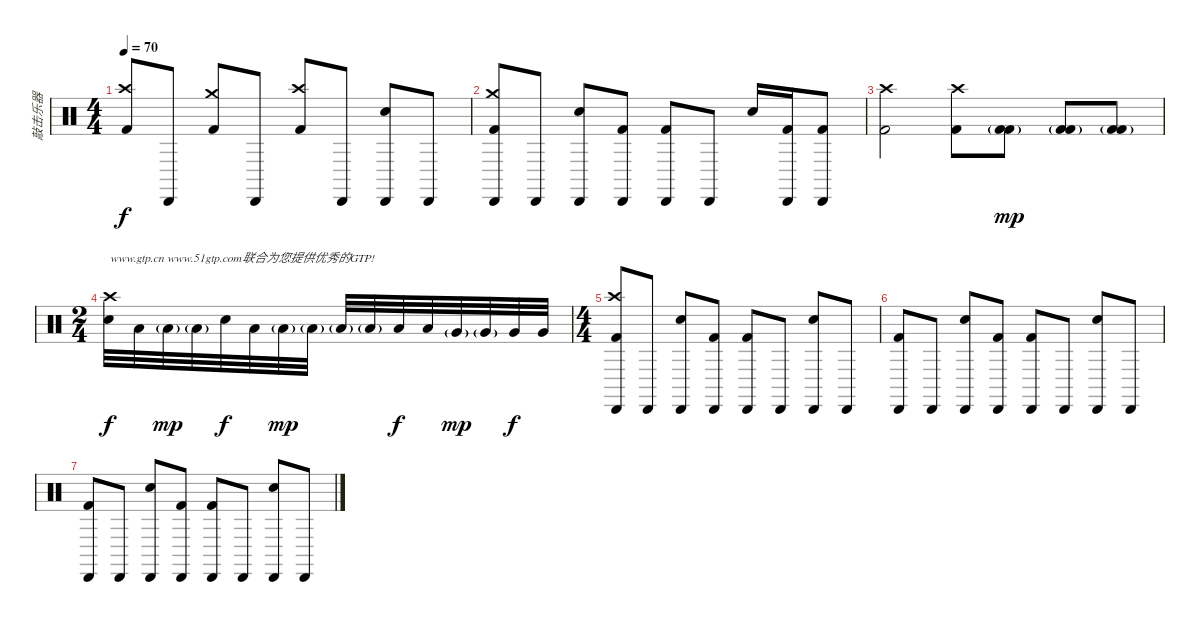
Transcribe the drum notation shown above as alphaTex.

\track ("敲击乐器" "敲击乐器") {instrument percussion}
\staff {score}
\articulation defaults
\ts (4 4)
\tempo 70
\clef neutral
\ks c
("Crash high (hit)" "Kick (hit) 2").8{dy f} "Cabasa (hit)".8 ("Crash medium (hit)" "Kick (hit) 2").8 "Cabasa (hit)".8 ("Crash high (hit)" "Kick (hit) 2").8 "Cabasa (hit)".8 ("Cabasa (hit)" "Electric Snare (hit)").8 "Cabasa (hit)".8 |
("Crash medium (hit)" "Cabasa (hit)" "Kick (hit) 2").8 "Cabasa (hit)".8 ("Cabasa (hit)" "Electric Snare (hit)").8 ("Cabasa (hit)" "Kick (hit) 2").8 ("Cabasa (hit)" "Kick (hit) 2").8 "Cabasa (hit)".8 "Electric Snare (hit)".16 ("Cabasa (hit)" "Kick (hit) 2").16 ("Cabasa (hit)" "Kick (hit) 2").8 |
("Crash high (hit)" "Kick (hit) 2").2 ("Crash high (hit)" "Kick (hit) 2").8 ("Kick (hit) 2"{g} "Kick (hit) 2"{g}).8{dy mp} ("Kick (hit) 2"{g} "Kick (hit) 2"{g}).8 ("Kick (hit) 2"{g} "Kick (hit) 2"{g}).8 |
\ts (2 4)
("Crash high (hit)" "Electric Snare (hit)").32{txt "www.gtp.cn www.51gtp.com联合为您提供优秀的GTP!" dy f volume 0} "Low Tom (hit)".32 "Low Tom (hit)"{g}.32{dy mp} "Low Tom (hit)"{g}.32 "Electric Snare (hit)".32{dy f} "Low Tom (hit)".32 "Low Tom (hit)"{g}.32{dy mp} "Low Tom (hit)"{g}.32 "Low Tom (hit)"{g}.32 "Low Tom (hit)"{g}.32 "Low Tom (hit)".32{dy f} "Low Tom (hit)".32 "Very Low Tom (hit)"{g}.32{dy mp} "Very Low Tom (hit)"{g}.32 "Very Low Tom (hit)".32{dy f} "Very Low Tom (hit)".32 |
\ts (4 4)
("Crash high (hit)" "Cabasa (hit)" "Kick (hit) 2").8 "Cabasa (hit)".8 ("Cabasa (hit)" "Electric Snare (hit)").8 ("Cabasa (hit)" "Kick (hit) 2").8 ("Cabasa (hit)" "Kick (hit) 2").8 "Cabasa (hit)".8 ("Cabasa (hit)" "Electric Snare (hit)").8 "Cabasa (hit)".8 |
("Cabasa (hit)" "Kick (hit) 2").8 "Cabasa (hit)".8 ("Cabasa (hit)" "Electric Snare (hit)").8 ("Cabasa (hit)" "Kick (hit) 2").8 ("Cabasa (hit)" "Kick (hit) 2").8 "Cabasa (hit)".8 ("Cabasa (hit)" "Electric Snare (hit)").8 "Cabasa (hit)".8 |
("Cabasa (hit)" "Kick (hit) 2").8 "Cabasa (hit)".8 ("Cabasa (hit)" "Electric Snare (hit)").8 ("Cabasa (hit)" "Kick (hit) 2").8 ("Cabasa (hit)" "Kick (hit) 2").8 "Cabasa (hit)".8 ("Cabasa (hit)" "Electric Snare (hit)").8 "Cabasa (hit)".8
